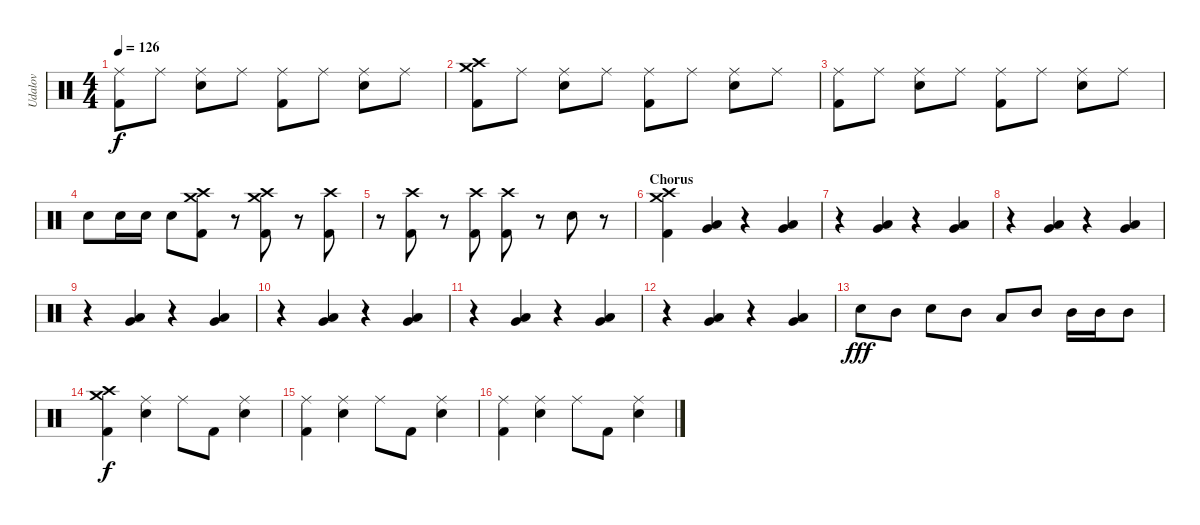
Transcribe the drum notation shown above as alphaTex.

\track ("Udalov" "Udalov") {instrument percussion}
\staff {score}
\articulation defaults
\ts (4 4)
\tempo 126
\clef neutral
\ks c
("Kick (hit) 2" "Ride (middle)").8{dy f} "Ride (middle)".8 ("Snare (hit) 2" "Ride (middle)").8 "Ride (middle)".8 ("Kick (hit) 2" "Ride (middle)").8 "Ride (middle)".8 ("Snare (hit) 2" "Ride (middle)").8 "Ride (middle)".8 |
("Kick (hit) 2" "Crash high (hit)" "Crash medium (hit)").8 "Ride (middle)".8 ("Snare (hit) 2" "Ride (middle)").8 "Ride (middle)".8 ("Kick (hit) 2" "Ride (middle)").8 "Ride (middle)".8 ("Snare (hit) 2" "Ride (middle)").8 "Ride (middle)".8 |
("Kick (hit) 2" "Ride (middle)").8 "Ride (middle)".8 ("Snare (hit) 2" "Ride (middle)").8 "Ride (middle)".8 ("Kick (hit) 2" "Ride (middle)").8 "Ride (middle)".8 ("Snare (hit) 2" "Ride (middle)").8 "Ride (middle)".8 |
"Snare (hit) 2".8 "Snare (hit) 2".16 "Snare (hit) 2".16 "Snare (hit) 2".8 ("Kick (hit) 2" "Crash high (hit)" "Crash medium (hit)").8 r.8 ("Kick (hit) 2" "Crash high (hit)" "Crash medium (hit)").8 r.8 ("Kick (hit) 2" "Crash high (hit)").8 |
r.8 ("Kick (hit) 2" "Crash high (hit)").8 r.8 ("Kick (hit) 2" "Crash high (hit)").8 ("Kick (hit) 2" "Crash high (hit)").8 r.8 "Snare (hit) 2".8 r.8 |
\section ("" "Chorus")
("Kick (hit) 2" "Crash high (hit)" "Crash medium (hit)").4 ("Very Low Tom (hit)" "Low Tom (hit)").4 r.4 ("Very Low Tom (hit)" "Low Tom (hit)").4 |
r.4 ("Very Low Tom (hit)" "Low Tom (hit)").4 r.4 ("Very Low Tom (hit)" "Low Tom (hit)").4 |
r.4 ("Very Low Tom (hit)" "Low Tom (hit)").4 r.4 ("Very Low Tom (hit)" "Low Tom (hit)").4 |
r.4 ("Very Low Tom (hit)" "Low Tom (hit)").4 r.4 ("Very Low Tom (hit)" "Low Tom (hit)").4 |
r.4 ("Very Low Tom (hit)" "Low Tom (hit)").4 r.4 ("Very Low Tom (hit)" "Low Tom (hit)").4 |
r.4 ("Very Low Tom (hit)" "Low Tom (hit)").4 r.4 ("Very Low Tom (hit)" "Low Tom (hit)").4 |
r.4 ("Very Low Tom (hit)" "Low Tom (hit)").4 r.4 ("Very Low Tom (hit)" "Low Tom (hit)").4 |
"Snare (hit) 2".8{dy fff} "Mid Tom (hit)".8 "Electric Snare (hit)".8 "Mid Tom (hit)".8 "Low Tom (hit)".8 "Mid Tom (hit)".8 "Mid Tom (hit)".16 "Mid Tom (hit)".16 "Mid Tom (hit)".8 |
("Kick (hit) 2" "Crash high (hit)" "Crash medium (hit)").4{dy f} ("Snare (hit) 2" "Ride (middle)").4 "Ride (middle)".8 "Kick (hit) 2".8 ("Snare (hit) 2" "Ride (middle)").4 |
("Kick (hit) 2" "Ride (middle)").4 ("Snare (hit) 2" "Ride (middle)").4 "Ride (middle)".8 "Kick (hit) 2".8 ("Snare (hit) 2" "Ride (middle)").4 |
("Kick (hit) 2" "Ride (middle)").4 ("Snare (hit) 2" "Ride (middle)").4 "Ride (middle)".8 "Kick (hit) 2".8 ("Snare (hit) 2" "Ride (middle)").4
